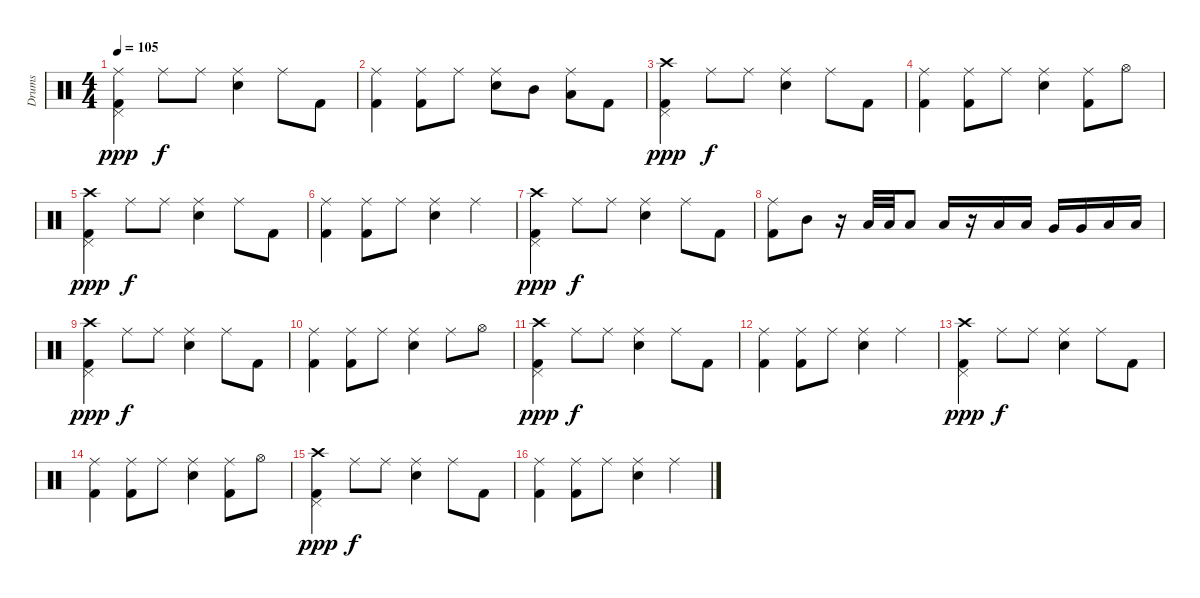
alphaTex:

\track ("Drums" "Drums") {instrument percussion}
\staff {score}
\articulation defaults
\ts (4 4)
\tempo 105
\clef neutral
\ks c
("Ride (middle)" "Pedal Hi-Hat (hit)" "Kick (hit) 2").4{dy ppp} "Ride (middle)".8{dy f} "Ride (middle)".8 ("Ride (middle)" "Electric Snare (hit)").4 "Ride (middle)".8 "Kick (hit) 2".8 |
("Ride (middle)" "Kick (hit) 2").4 ("Ride (middle)" "Kick (hit) 2").8 "Ride (middle)".8 ("Ride (middle)" "Electric Snare (hit)").8 "Mid Tom (hit)".8 ("Ride (middle)" "Low Tom (hit)").8 "Kick (hit) 2".8 |
("Crash high (hit)" "Pedal Hi-Hat (hit)" "Kick (hit) 2").4{dy ppp} "Ride (middle)".8{dy f} "Ride (middle)".8 ("Ride (middle)" "Electric Snare (hit)").4 "Ride (middle)".8 "Kick (hit) 2".8 |
("Ride (middle)" "Kick (hit) 2").4 ("Ride (middle)" "Kick (hit) 2").8 "Ride (middle)".8 ("Ride (middle)" "Electric Snare (hit)").4 ("Ride (middle)" "Kick (hit) 2").8 "Hi-Hat (open)".8 |
("Crash high (hit)" "Pedal Hi-Hat (hit)" "Kick (hit) 2").4{dy ppp} "Ride (middle)".8{dy f} "Ride (middle)".8 ("Ride (middle)" "Electric Snare (hit)").4 "Ride (middle)".8 "Kick (hit) 2".8 |
("Ride (middle)" "Kick (hit) 2").4 ("Ride (middle)" "Kick (hit) 2").8 "Ride (middle)".8 ("Ride (middle)" "Electric Snare (hit)").4 "Ride (middle)".4 |
("Crash high (hit)" "Pedal Hi-Hat (hit)" "Kick (hit) 2").4{dy ppp} "Ride (middle)".8{dy f} "Ride (middle)".8 ("Ride (middle)" "Electric Snare (hit)").4 "Ride (middle)".8 "Kick (hit) 2".8 |
("Ride (middle)" "Kick (hit) 2").8 "Mid Tom (hit)".8 r.16 "Low Tom (hit)".32 "Low Tom (hit)".32 "Low Tom (hit)".8 "Low Tom (hit)".16 r.16 "Low Tom (hit)".16 "Low Tom (hit)".16 "Very Low Tom (hit)".16 "Very Low Tom (hit)".16 "Low Floor Tom (hit)".16 "Low Floor Tom (hit)".16 |
("Crash high (hit)" "Pedal Hi-Hat (hit)" "Kick (hit) 2").4{dy ppp} "Ride (middle)".8{dy f} "Ride (middle)".8 ("Ride (middle)" "Electric Snare (hit)").4 "Ride (middle)".8 "Kick (hit) 2".8 |
("Ride (middle)" "Kick (hit) 2").4 ("Ride (middle)" "Kick (hit) 2").8 "Ride (middle)".8 ("Ride (middle)" "Electric Snare (hit)").4 "Ride (middle)".8 "Hi-Hat (open)".8 |
("Crash high (hit)" "Pedal Hi-Hat (hit)" "Kick (hit) 2").4{dy ppp} "Ride (middle)".8{dy f} "Ride (middle)".8 ("Ride (middle)" "Electric Snare (hit)").4 "Ride (middle)".8 "Kick (hit) 2".8 |
("Ride (middle)" "Kick (hit) 2").4 ("Ride (middle)" "Kick (hit) 2").8 "Ride (middle)".8 ("Ride (middle)" "Electric Snare (hit)").4 "Ride (middle)".4 |
("Crash high (hit)" "Pedal Hi-Hat (hit)" "Kick (hit) 2").4{dy ppp} "Ride (middle)".8{dy f} "Ride (middle)".8 ("Ride (middle)" "Electric Snare (hit)").4 "Ride (middle)".8 "Kick (hit) 2".8 |
("Ride (middle)" "Kick (hit) 2").4 ("Ride (middle)" "Kick (hit) 2").8 "Ride (middle)".8 ("Ride (middle)" "Electric Snare (hit)").4 ("Ride (middle)" "Kick (hit) 2").8 "Hi-Hat (open)".8 |
("Crash high (hit)" "Pedal Hi-Hat (hit)" "Kick (hit) 2").4{dy ppp} "Ride (middle)".8{dy f} "Ride (middle)".8 ("Ride (middle)" "Electric Snare (hit)").4 "Ride (middle)".8 "Kick (hit) 2".8 |
("Ride (middle)" "Kick (hit) 2").4 ("Ride (middle)" "Kick (hit) 2").8 "Ride (middle)".8 ("Ride (middle)" "Electric Snare (hit)").4 "Ride (middle)".4
